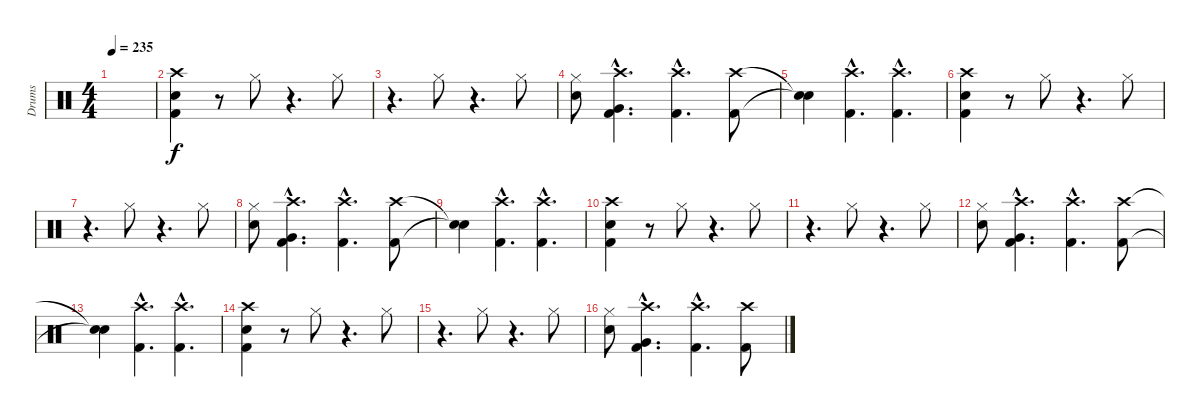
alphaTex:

\track ("Drums" "Drums") {instrument percussion}
\staff {score}
\articulation defaults
\ts (4 4)
\tempo 235
\clef neutral
\ks c
|
("Crash high (hit)" "Kick (hit) 2" "Snare (hit) 2").4 r.8 "Hi-Hat (closed)".8 r.4{d} "Hi-Hat (closed)".8 |
r.4{d} "Hi-Hat (closed)".8 r.4{d} "Hi-Hat (closed)".8 |
("Hi-Hat (closed)" "Snare (hit) 2").8 ("Kick (hit) 2"{hac} "Crash high (hit)"{hac} "Very Low Tom (hit)").4{d} ("Kick (hit) 2"{hac} "Crash high (hit)"{hac}).4{d} ("Kick (hit) 2" "Crash high (hit)").8 |
("Snare (hit)"{t} "Snare (hit)"{t}).4 ("Kick (hit) 2"{hac} "Crash high (hit)"{hac}).4{d} ("Kick (hit) 2"{hac} "Crash high (hit)"{hac}).4{d} |
("Crash high (hit)" "Kick (hit) 2" "Snare (hit) 2").4 r.8 "Hi-Hat (closed)".8 r.4{d} "Hi-Hat (closed)".8 |
r.4{d} "Hi-Hat (closed)".8 r.4{d} "Hi-Hat (closed)".8 |
("Hi-Hat (closed)" "Snare (hit) 2").8 ("Kick (hit) 2"{hac} "Crash high (hit)"{hac} "Very Low Tom (hit)").4{d} ("Kick (hit) 2"{hac} "Crash high (hit)"{hac}).4{d} ("Kick (hit) 2" "Crash high (hit)").8 |
("Snare (hit)"{t} "Snare (hit)"{t}).4 ("Kick (hit) 2"{hac} "Crash high (hit)"{hac}).4{d} ("Kick (hit) 2"{hac} "Crash high (hit)"{hac}).4{d} |
("Crash high (hit)" "Kick (hit) 2" "Snare (hit) 2").4 r.8 "Hi-Hat (closed)".8 r.4{d} "Hi-Hat (closed)".8 |
r.4{d} "Hi-Hat (closed)".8 r.4{d} "Hi-Hat (closed)".8 |
("Hi-Hat (closed)" "Snare (hit) 2").8 ("Kick (hit) 2"{hac} "Crash high (hit)"{hac} "Very Low Tom (hit)").4{d} ("Kick (hit) 2"{hac} "Crash high (hit)"{hac}).4{d} ("Kick (hit) 2" "Crash high (hit)").8 |
("Snare (hit)"{t} "Snare (hit)"{t}).4 ("Kick (hit) 2"{hac} "Crash high (hit)"{hac}).4{d} ("Kick (hit) 2"{hac} "Crash high (hit)"{hac}).4{d} |
("Crash high (hit)" "Kick (hit) 2" "Snare (hit) 2").4 r.8 "Hi-Hat (closed)".8 r.4{d} "Hi-Hat (closed)".8 |
r.4{d} "Hi-Hat (closed)".8 r.4{d} "Hi-Hat (closed)".8 |
("Hi-Hat (closed)" "Snare (hit) 2").8 ("Kick (hit) 2"{hac} "Crash high (hit)"{hac} "Very Low Tom (hit)").4{d} ("Kick (hit) 2"{hac} "Crash high (hit)"{hac}).4{d} ("Kick (hit) 2" "Crash high (hit)").8
